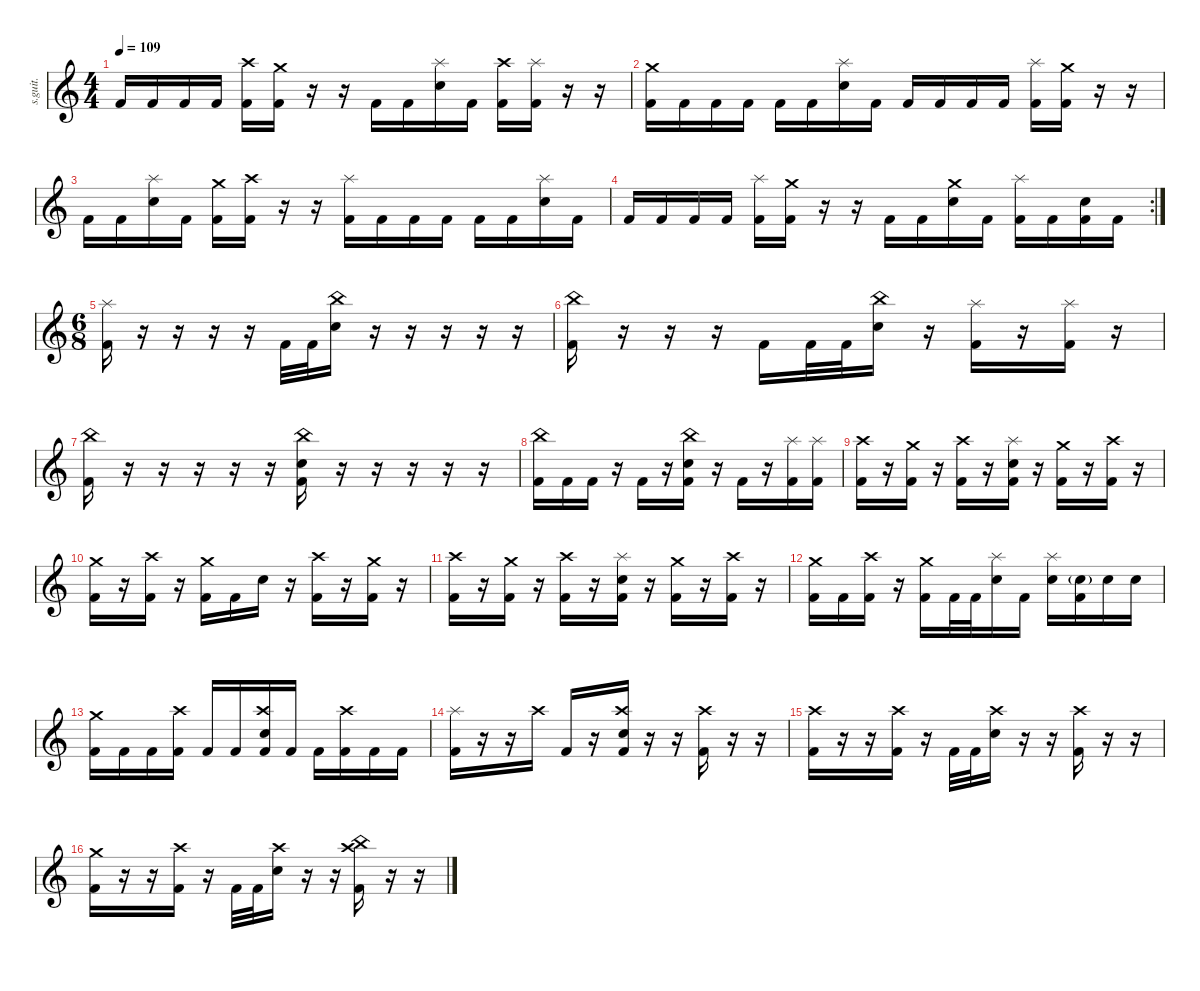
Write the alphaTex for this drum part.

\defaultSystemsLayout 4
\hideDynamics
\bracketExtendMode nobrackets
\track ("Drumkit" "s.guit.") {instrument percussion}
\staff {score}
\articulation defaults
\ts (4 4)
\tempo 109
\clef g2
\ks c "Kick (hit) 2".16{lyrics (0 "") lyrics (1 "") lyrics (2 "") lyrics (3 "") lyrics (4 "") dy f} "Kick (hit) 2".16{lyrics (0 "") lyrics (1 "") lyrics (2 "") lyrics (3 "") lyrics (4 "")} "Kick (hit) 2".16{lyrics (0 "") lyrics (1 "") lyrics (2 "") lyrics (3 "") lyrics (4 "")} "Kick (hit) 2".16{lyrics (0 "") lyrics (1 "") lyrics (2 "") lyrics (3 "") lyrics (4 "")}
("Crash high (hit)" "Kick (hit) 2").16{lyrics (0 "") lyrics (1 "") lyrics (2 "") lyrics (3 "") lyrics (4 "")} ("Crash medium (hit)" "Kick (hit) 2").16{lyrics (0 "") lyrics (1 "") lyrics (2 "") lyrics (3 "") lyrics (4 "")} r.16 r.16 "Kick (hit) 2".16{lyrics (0 "") lyrics (1 "") lyrics (2 "") lyrics (3 "") lyrics (4 "")} "Kick (hit) 2".16{lyrics (0 "") lyrics (1 "") lyrics (2 "") lyrics (3 "") lyrics (4 "")} ("Splash (hit)" "Electric Snare (hit)").16{lyrics (0 "") lyrics (1 "") lyrics (2 "") lyrics (3 "") lyrics (4 "")} "Kick (hit) 2".16{lyrics (0 "") lyrics (1 "") lyrics (2 "") lyrics (3 "") lyrics (4 "")} ("Crash high (hit)" "Kick (hit) 2").16{lyrics (0 "") lyrics (1 "") lyrics (2 "") lyrics (3 "") lyrics (4 "")} ("Splash (hit)" "Kick (hit) 2").16{lyrics (0 "") lyrics (1 "") lyrics (2 "") lyrics (3 "") lyrics (4 "")} r.16 r.16 |
("Crash medium (hit)" "Kick (hit) 2").16{lyrics (0 "") lyrics (1 "") lyrics (2 "") lyrics (3 "") lyrics (4 "")} "Kick (hit) 2".16{lyrics (0 "") lyrics (1 "") lyrics (2 "") lyrics (3 "") lyrics (4 "")} "Kick (hit) 2".16{lyrics (0 "") lyrics (1 "") lyrics (2 "") lyrics (3 "") lyrics (4 "")} "Kick (hit) 2".16{lyrics (0 "") lyrics (1 "") lyrics (2 "") lyrics (3 "") lyrics (4 "")} "Kick (hit) 2".16{lyrics (0 "") lyrics (1 "") lyrics (2 "") lyrics (3 "") lyrics (4 "")} "Kick (hit) 2".16{lyrics (0 "") lyrics (1 "") lyrics (2 "") lyrics (3 "") lyrics (4 "")} ("Splash (hit)" "Electric Snare (hit)").16{lyrics (0 "") lyrics (1 "") lyrics (2 "") lyrics (3 "") lyrics (4 "")} "Kick (hit) 2".16{lyrics (0 "") lyrics (1 "") lyrics (2 "") lyrics (3 "") lyrics (4 "")} "Kick (hit) 2".16{lyrics (0 "") lyrics (1 "") lyrics (2 "") lyrics (3 "") lyrics (4 "")} "Kick (hit) 2".16{lyrics (0 "") lyrics (1 "") lyrics (2 "") lyrics (3 "") lyrics (4 "")} "Kick (hit) 2".16{lyrics (0 "") lyrics (1 "") lyrics (2 "") lyrics (3 "") lyrics (4 "")} "Kick (hit) 2".16{lyrics (0 "") lyrics (1 "") lyrics (2 "") lyrics (3 "") lyrics (4 "")} ("Splash (hit)" "Kick (hit) 2").16{lyrics (0 "") lyrics (1 "") lyrics (2 "") lyrics (3 "") lyrics (4 "")} ("Crash medium (hit)" "Kick (hit) 2").16{lyrics (0 "") lyrics (1 "") lyrics (2 "") lyrics (3 "") lyrics (4 "")} r.16 r.16 |
"Kick (hit) 2".16{lyrics (0 "") lyrics (1 "") lyrics (2 "") lyrics (3 "") lyrics (4 "")} "Kick (hit) 2".16{lyrics (0 "") lyrics (1 "") lyrics (2 "") lyrics (3 "") lyrics (4 "")} ("Splash (hit)" "Electric Snare (hit)").16{lyrics (0 "") lyrics (1 "") lyrics (2 "") lyrics (3 "") lyrics (4 "")} "Kick (hit) 2".16{lyrics (0 "") lyrics (1 "") lyrics (2 "") lyrics (3 "") lyrics (4 "")} ("Crash medium (hit)" "Kick (hit) 2").16{lyrics (0 "") lyrics (1 "") lyrics (2 "") lyrics (3 "") lyrics (4 "")} ("Crash high (hit)" "Kick (hit) 2").16{lyrics (0 "") lyrics (1 "") lyrics (2 "") lyrics (3 "") lyrics (4 "")} r.16 r.16 ("Splash (hit)" "Kick (hit) 2").16{lyrics (0 "") lyrics (1 "") lyrics (2 "") lyrics (3 "") lyrics (4 "")} "Kick (hit) 2".16{lyrics (0 "") lyrics (1 "") lyrics (2 "") lyrics (3 "") lyrics (4 "")} "Kick (hit) 2".16{lyrics (0 "") lyrics (1 "") lyrics (2 "") lyrics (3 "") lyrics (4 "")} "Kick (hit) 2".16{lyrics (0 "") lyrics (1 "") lyrics (2 "") lyrics (3 "") lyrics (4 "")} "Kick (hit) 2".16{lyrics (0 "") lyrics (1 "") lyrics (2 "") lyrics (3 "") lyrics (4 "")} "Kick (hit) 2".16{lyrics (0 "") lyrics (1 "") lyrics (2 "") lyrics (3 "") lyrics (4 "")} ("Splash (hit)" "Electric Snare (hit)").16{lyrics (0 "") lyrics (1 "") lyrics (2 "") lyrics (3 "") lyrics (4 "")} "Kick (hit) 2".16{lyrics (0 "") lyrics (1 "") lyrics (2 "") lyrics (3 "") lyrics (4 "")} |
\rc 2 "Kick (hit) 2".16{lyrics (0 "") lyrics (1 "") lyrics (2 "") lyrics (3 "") lyrics (4 "")} "Kick (hit) 2".16{lyrics (0 "") lyrics (1 "") lyrics (2 "") lyrics (3 "") lyrics (4 "")} "Kick (hit) 2".16{lyrics (0 "") lyrics (1 "") lyrics (2 "") lyrics (3 "") lyrics (4 "")} "Kick (hit) 2".16{lyrics (0 "") lyrics (1 "") lyrics (2 "") lyrics (3 "") lyrics (4 "")}
("Splash (hit)" "Kick (hit) 2").16{lyrics (0 "") lyrics (1 "") lyrics (2 "") lyrics (3 "") lyrics (4 "")} ("Crash medium (hit)" "Kick (hit) 2").16{lyrics (0 "") lyrics (1 "") lyrics (2 "") lyrics (3 "") lyrics (4 "")} r.16 r.16 "Kick (hit) 2".16{lyrics (0 "") lyrics (1 "") lyrics (2 "") lyrics (3 "") lyrics (4 "")} "Kick (hit) 2".16{lyrics (0 "") lyrics (1 "") lyrics (2 "") lyrics (3 "") lyrics (4 "")} ("Crash medium (hit)" "Electric Snare (hit)").16{lyrics (0 "") lyrics (1 "") lyrics (2 "") lyrics (3 "") lyrics (4 "")} "Kick (hit) 2".16{lyrics (0 "") lyrics (1 "") lyrics (2 "") lyrics (3 "") lyrics (4 "")} ("Splash (hit)" "Kick (hit) 2").16{lyrics (0 "") lyrics (1 "") lyrics (2 "") lyrics (3 "") lyrics (4 "")} "Kick (hit) 2".16{lyrics (0 "") lyrics (1 "") lyrics (2 "") lyrics (3 "") lyrics (4 "")} ("Electric Snare (hit)" "Kick (hit) 2").16{lyrics (0 "") lyrics (1 "") lyrics (2 "") lyrics (3 "") lyrics (4 "")} "Kick (hit) 2".16{lyrics (0 "") lyrics (1 "") lyrics (2 "") lyrics (3 "") lyrics (4 "")} |
\ts (6 8)
\beaming (8 2 2 2 2)
("Splash (hit)" "Kick (hit) 2").16{lyrics (0 "") lyrics (1 "") lyrics (2 "") lyrics (3 "") lyrics (4 "")} r.16 r.16 r.16 r.16 "Kick (hit) 2".32{lyrics (0 "") lyrics (1 "") lyrics (2 "") lyrics (3 "") lyrics (4 "")} "Kick (hit) 2".32{lyrics (0 "") lyrics (1 "") lyrics (2 "") lyrics (3 "") lyrics (4 "")} ("China (hit)" "Electric Snare (hit)").16{lyrics (0 "") lyrics (1 "") lyrics (2 "") lyrics (3 "") lyrics (4 "")} r.16 r.16 r.16 r.16 r.16 |
("China (hit)" "Kick (hit) 2").16{lyrics (0 "") lyrics (1 "") lyrics (2 "") lyrics (3 "") lyrics (4 "")} r.16 r.16 r.16 "Kick (hit) 2".16{lyrics (0 "") lyrics (1 "") lyrics (2 "") lyrics (3 "") lyrics (4 "")} "Kick (hit) 2".32{lyrics (0 "") lyrics (1 "") lyrics (2 "") lyrics (3 "") lyrics (4 "")} "Kick (hit) 2".32{lyrics (0 "") lyrics (1 "") lyrics (2 "") lyrics (3 "") lyrics (4 "")} ("China (hit)" "Electric Snare (hit)").16{lyrics (0 "") lyrics (1 "") lyrics (2 "") lyrics (3 "") lyrics (4 "")} r.16 ("Splash (hit)" "Kick (hit) 2").16{lyrics (0 "") lyrics (1 "") lyrics (2 "") lyrics (3 "") lyrics (4 "")} r.16 ("Splash (hit)" "Kick (hit) 2").16{lyrics (0 "") lyrics (1 "") lyrics (2 "") lyrics (3 "") lyrics (4 "")} r.16 |
("China (hit)" "Kick (hit) 2").16{lyrics (0 "") lyrics (1 "") lyrics (2 "") lyrics (3 "") lyrics (4 "")} r.16 r.16 r.16 r.16 r.16 ("China (hit)" "Electric Snare (hit)" "Kick (hit) 2").16{lyrics (0 "") lyrics (1 "") lyrics (2 "") lyrics (3 "") lyrics (4 "")} r.16 r.16 r.16 r.16 r.16 |
("China (hit)" "Kick (hit) 2").16{lyrics (0 "") lyrics (1 "") lyrics (2 "") lyrics (3 "") lyrics (4 "")} "Kick (hit) 2".16{lyrics (0 "") lyrics (1 "") lyrics (2 "") lyrics (3 "") lyrics (4 "")} "Kick (hit) 2".16{lyrics (0 "") lyrics (1 "") lyrics (2 "") lyrics (3 "") lyrics (4 "")} r.16 "Kick (hit) 2".16{lyrics (0 "") lyrics (1 "") lyrics (2 "") lyrics (3 "") lyrics (4 "")} r.16 ("China (hit)" "Electric Snare (hit)" "Kick (hit) 2").16{lyrics (0 "") lyrics (1 "") lyrics (2 "") lyrics (3 "") lyrics (4 "")} r.16 "Kick (hit) 2".16{lyrics (0 "") lyrics (1 "") lyrics (2 "") lyrics (3 "") lyrics (4 "")} r.16 ("Splash (hit)" "Kick (hit) 2").16{lyrics (0 "") lyrics (1 "") lyrics (2 "") lyrics (3 "") lyrics (4 "")} ("Splash (hit)" "Kick (hit) 2").16{lyrics (0 "") lyrics (1 "") lyrics (2 "") lyrics (3 "") lyrics (4 "")} |
("Crash high (hit)" "Kick (hit) 2").16{lyrics (0 "") lyrics (1 "") lyrics (2 "") lyrics (3 "") lyrics (4 "")} r.16 ("Crash medium (hit)" "Kick (hit) 2").16{lyrics (0 "") lyrics (1 "") lyrics (2 "") lyrics (3 "") lyrics (4 "")} r.16 ("Crash high (hit)" "Kick (hit) 2").16{lyrics (0 "") lyrics (1 "") lyrics (2 "") lyrics (3 "") lyrics (4 "")} r.16 ("Splash (hit)" "Electric Snare (hit)" "Kick (hit) 2").16{lyrics (0 "") lyrics (1 "") lyrics (2 "") lyrics (3 "") lyrics (4 "")} r.16 ("Crash medium (hit)" "Kick (hit) 2").16{lyrics (0 "") lyrics (1 "") lyrics (2 "") lyrics (3 "") lyrics (4 "")} r.16 ("Crash high (hit)" "Kick (hit) 2").16{lyrics (0 "") lyrics (1 "") lyrics (2 "") lyrics (3 "") lyrics (4 "")} r.16 |
("Crash medium (hit)" "Kick (hit) 2").16{lyrics (0 "") lyrics (1 "") lyrics (2 "") lyrics (3 "") lyrics (4 "")} r.16 ("Crash high (hit)" "Kick (hit) 2").16{lyrics (0 "") lyrics (1 "") lyrics (2 "") lyrics (3 "") lyrics (4 "")} r.16 ("Crash medium (hit)" "Kick (hit) 2").16{lyrics (0 "") lyrics (1 "") lyrics (2 "") lyrics (3 "") lyrics (4 "")} "Kick (hit) 2".16{lyrics (0 "") lyrics (1 "") lyrics (2 "") lyrics (3 "") lyrics (4 "")} "Electric Snare (hit)".16{lyrics (0 "") lyrics (1 "") lyrics (2 "") lyrics (3 "") lyrics (4 "")} r.16 ("Crash high (hit)" "Kick (hit) 2").16{lyrics (0 "") lyrics (1 "") lyrics (2 "") lyrics (3 "") lyrics (4 "")} r.16 ("Crash medium (hit)" "Kick (hit) 2").16{lyrics (0 "") lyrics (1 "") lyrics (2 "") lyrics (3 "") lyrics (4 "")} r.16 |
("Crash high (hit)" "Kick (hit) 2").16{lyrics (0 "") lyrics (1 "") lyrics (2 "") lyrics (3 "") lyrics (4 "")} r.16 ("Crash medium (hit)" "Kick (hit) 2").16{lyrics (0 "") lyrics (1 "") lyrics (2 "") lyrics (3 "") lyrics (4 "")} r.16 ("Crash high (hit)" "Kick (hit) 2").16{lyrics (0 "") lyrics (1 "") lyrics (2 "") lyrics (3 "") lyrics (4 "")} r.16 ("Splash (hit)" "Electric Snare (hit)" "Kick (hit) 2").16{lyrics (0 "") lyrics (1 "") lyrics (2 "") lyrics (3 "") lyrics (4 "")} r.16 ("Crash medium (hit)" "Kick (hit) 2").16{lyrics (0 "") lyrics (1 "") lyrics (2 "") lyrics (3 "") lyrics (4 "")} r.16 ("Crash high (hit)" "Kick (hit) 2").16{lyrics (0 "") lyrics (1 "") lyrics (2 "") lyrics (3 "") lyrics (4 "")} r.16 |
("Crash medium (hit)" "Kick (hit) 2").16{lyrics (0 "") lyrics (1 "") lyrics (2 "") lyrics (3 "") lyrics (4 "")} "Kick (hit) 2".16{lyrics (0 "") lyrics (1 "") lyrics (2 "") lyrics (3 "") lyrics (4 "")} ("Crash high (hit)" "Kick (hit) 2").16{lyrics (0 "") lyrics (1 "") lyrics (2 "") lyrics (3 "") lyrics (4 "")} r.16 ("Crash medium (hit)" "Kick (hit) 2").16{lyrics (0 "") lyrics (1 "") lyrics (2 "") lyrics (3 "") lyrics (4 "")} "Kick (hit) 2".32{lyrics (0 "") lyrics (1 "") lyrics (2 "") lyrics (3 "") lyrics (4 "")} "Kick (hit) 2".32{lyrics (0 "") lyrics (1 "") lyrics (2 "") lyrics (3 "") lyrics (4 "")} ("Splash (hit)" "Electric Snare (hit)").16{lyrics (0 "") lyrics (1 "") lyrics (2 "") lyrics (3 "") lyrics (4 "")} "Kick (hit) 2".16{lyrics (0 "") lyrics (1 "") lyrics (2 "") lyrics (3 "") lyrics (4 "")} ("Splash (hit)" "Electric Snare (hit)").16{lyrics (0 "") lyrics (1 "") lyrics (2 "") lyrics (3 "") lyrics (4 "")} ("Electric Snare (hit)"{g} "Kick (hit) 2").16{lyrics (0 "") lyrics (1 "") lyrics (2 "") lyrics (3 "") lyrics (4 "")} "Electric Snare (hit)".16{lyrics (0 "") lyrics (1 "") lyrics (2 "") lyrics (3 "") lyrics (4 "")} "Electric Snare (hit)".16{lyrics (0 "") lyrics (1 "") lyrics (2 "") lyrics (3 "") lyrics (4 "")} |
("Crash medium (hit)" "Kick (hit) 2").16{lyrics (0 "") lyrics (1 "") lyrics (2 "") lyrics (3 "") lyrics (4 "")} "Kick (hit) 2".16{lyrics (0 "") lyrics (1 "") lyrics (2 "") lyrics (3 "") lyrics (4 "")} "Kick (hit) 2".16{lyrics (0 "") lyrics (1 "") lyrics (2 "") lyrics (3 "") lyrics (4 "")} ("Crash high (hit)" "Kick (hit) 2").16{lyrics (0 "") lyrics (1 "") lyrics (2 "") lyrics (3 "") lyrics (4 "")} "Kick (hit) 2".16{lyrics (0 "") lyrics (1 "") lyrics (2 "") lyrics (3 "") lyrics (4 "")} "Kick (hit) 2".16{lyrics (0 "") lyrics (1 "") lyrics (2 "") lyrics (3 "") lyrics (4 "")} ("Crash high (hit)" "Electric Snare (hit)" "Kick (hit) 2").16{lyrics (0 "") lyrics (1 "") lyrics (2 "") lyrics (3 "") lyrics (4 "")} "Kick (hit) 2".16{lyrics (0 "") lyrics (1 "") lyrics (2 "") lyrics (3 "") lyrics (4 "")} "Kick (hit) 2".16{lyrics (0 "") lyrics (1 "") lyrics (2 "") lyrics (3 "") lyrics (4 "")} ("Crash high (hit)" "Kick (hit) 2").16{lyrics (0 "") lyrics (1 "") lyrics (2 "") lyrics (3 "") lyrics (4 "")} "Kick (hit) 2".16{lyrics (0 "") lyrics (1 "") lyrics (2 "") lyrics (3 "") lyrics (4 "")} "Kick (hit) 2".16{lyrics (0 "") lyrics (1 "") lyrics (2 "") lyrics (3 "") lyrics (4 "")} |
("Splash (hit)" "Kick (hit) 2").16{lyrics (0 "") lyrics (1 "") lyrics (2 "") lyrics (3 "") lyrics (4 "")} r.16 r.16 "Crash high (hit)".16{lyrics (0 "") lyrics (1 "") lyrics (2 "") lyrics (3 "") lyrics (4 "")} "Kick (hit) 2".16{lyrics (0 "") lyrics (1 "") lyrics (2 "") lyrics (3 "") lyrics (4 "")} r.16 ("Crash high (hit)" "Electric Snare (hit)" "Kick (hit) 2").16{lyrics (0 "") lyrics (1 "") lyrics (2 "") lyrics (3 "") lyrics (4 "")} r.16 r.16 ("Crash high (hit)" "Kick (hit) 2").16{lyrics (0 "") lyrics (1 "") lyrics (2 "") lyrics (3 "") lyrics (4 "")} r.16 r.16 |
("Crash high (hit)" "Kick (hit) 2").16{lyrics (0 "") lyrics (1 "") lyrics (2 "") lyrics (3 "") lyrics (4 "")} r.16 r.16 ("Crash high (hit)" "Kick (hit) 2").16{lyrics (0 "") lyrics (1 "") lyrics (2 "") lyrics (3 "") lyrics (4 "")} r.16 "Kick (hit) 2".32{lyrics (0 "") lyrics (1 "") lyrics (2 "") lyrics (3 "") lyrics (4 "")} "Kick (hit) 2".32{lyrics (0 "") lyrics (1 "") lyrics (2 "") lyrics (3 "") lyrics (4 "")} ("Crash high (hit)" "Electric Snare (hit)").16{lyrics (0 "") lyrics (1 "") lyrics (2 "") lyrics (3 "") lyrics (4 "")} r.16 r.16 ("Crash high (hit)" "Kick (hit) 2").16{lyrics (0 "") lyrics (1 "") lyrics (2 "") lyrics (3 "") lyrics (4 "")} r.16 r.16 |
("Crash medium (hit)" "Kick (hit) 2").16{lyrics (0 "") lyrics (1 "") lyrics (2 "") lyrics (3 "") lyrics (4 "")} r.16 r.16 ("Crash high (hit)" "Kick (hit) 2").16{lyrics (0 "") lyrics (1 "") lyrics (2 "") lyrics (3 "") lyrics (4 "")} r.16 "Kick (hit) 2".32{lyrics (0 "") lyrics (1 "") lyrics (2 "") lyrics (3 "") lyrics (4 "")} "Kick (hit) 2".32{lyrics (0 "") lyrics (1 "") lyrics (2 "") lyrics (3 "") lyrics (4 "")} ("Crash high (hit)" "Electric Snare (hit)").16{lyrics (0 "") lyrics (1 "") lyrics (2 "") lyrics (3 "") lyrics (4 "")} r.16 r.16 ("China (hit)" "Crash high (hit)" "Kick (hit) 2").16{lyrics (0 "") lyrics (1 "") lyrics (2 "") lyrics (3 "") lyrics (4 "")} r.16 r.16
